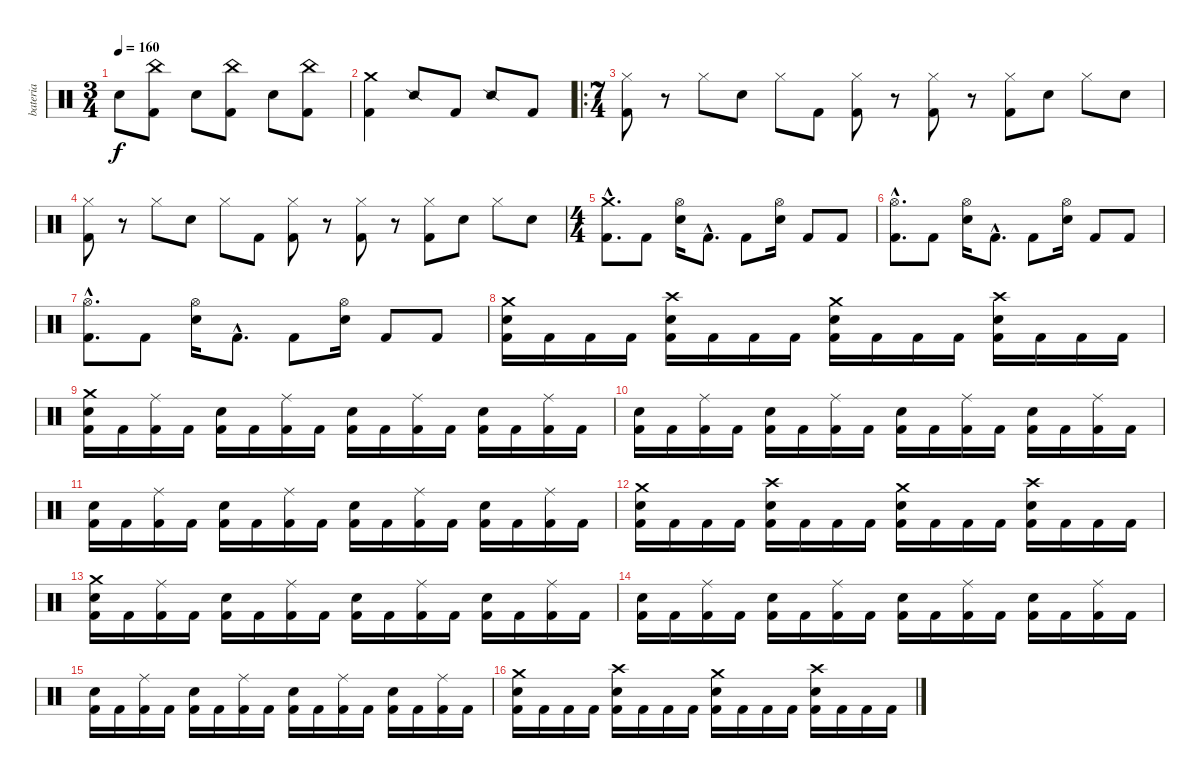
\track ("bateria" "bateria") {instrument percussion}
\staff {score}
\articulation defaults
\ts (3 4)
\tempo 160
\clef neutral
\ks c "Electric Snare (hit)".8{dy f}
("China (hit)" "Kick (hit) 2").8 "Electric Snare (hit)".8 ("China (hit)" "Kick (hit) 2").8 "Electric Snare (hit)".8 ("China (hit)" "Kick (hit) 2").8 |
("Crash medium (hit)" "Kick (hit) 2").4 "Snare (side stick) 2".8 "Kick (hit) 2".8 "Snare (side stick) 2".8 "Kick (hit) 2".8 |
\ro
\ts (7 4)
("Hi-Hat (closed)" "Kick (hit) 2").8 r.8 "Hi-Hat (closed)".8 "Electric Snare (hit)".8 "Hi-Hat (closed)".8 "Kick (hit) 2".8 ("Hi-Hat (closed)" "Kick (hit) 2").8 r.8 ("Hi-Hat (closed)" "Kick (hit) 2").8 r.8 ("Hi-Hat (closed)" "Kick (hit) 2").8 "Electric Snare (hit)".8 "Hi-Hat (closed)".8 "Electric Snare (hit)".8 |
("Hi-Hat (closed)" "Kick (hit) 2").8 r.8 "Hi-Hat (closed)".8 "Electric Snare (hit)".8 "Hi-Hat (closed)".8 "Kick (hit) 2".8 ("Hi-Hat (closed)" "Kick (hit) 2").8 r.8 ("Hi-Hat (closed)" "Kick (hit) 2").8 r.8 ("Hi-Hat (closed)" "Kick (hit) 2").8 "Electric Snare (hit)".8 "Hi-Hat (closed)".8 "Electric Snare (hit)".8 |
\ts (4 4)
("Crash medium (hit)"{hac} "Kick (hit) 2"{hac}).8{d} "Kick (hit) 2".8 ("Hi-Hat (open)" "Electric Snare (hit)").16 "Kick (hit) 2"{hac}.8{d} "Kick (hit) 2".8 ("Hi-Hat (open)" "Electric Snare (hit)").16 "Kick (hit) 2".8 "Kick (hit) 2".8 |
("Hi-Hat (open)"{hac} "Kick (hit) 2"{hac}).8{d} "Kick (hit) 2".8 ("Hi-Hat (open)" "Electric Snare (hit)").16 "Kick (hit) 2"{hac}.8{d} "Kick (hit) 2".8 ("Hi-Hat (open)" "Electric Snare (hit)").16 "Kick (hit) 2".8 "Kick (hit) 2".8 |
("Hi-Hat (open)"{hac} "Kick (hit) 2"{hac}).8{d} "Kick (hit) 2".8 ("Hi-Hat (open)" "Electric Snare (hit)").16 "Kick (hit) 2"{hac}.8{d} "Kick (hit) 2".8 ("Hi-Hat (open)" "Electric Snare (hit)").16 "Kick (hit) 2".8 "Kick (hit) 2".8 |
("Crash medium (hit)" "Electric Snare (hit)" "Kick (hit) 2").16 "Kick (hit) 2".16 "Kick (hit) 2".16 "Kick (hit) 2".16 ("Crash high (hit)" "Electric Snare (hit)" "Kick (hit) 2").16 "Kick (hit) 2".16 "Kick (hit) 2".16 "Kick (hit) 2".16 ("Crash medium (hit)" "Electric Snare (hit)" "Kick (hit) 2").16 "Kick (hit) 2".16 "Kick (hit) 2".16 "Kick (hit) 2".16 ("Crash high (hit)" "Electric Snare (hit)" "Kick (hit) 2").16 "Kick (hit) 2".16 "Kick (hit) 2".16 "Kick (hit) 2".16 |
("Crash medium (hit)" "Electric Snare (hit)" "Kick (hit) 2").16 "Kick (hit) 2".16 ("Ride (middle)" "Kick (hit) 2").16 "Kick (hit) 2".16 ("Electric Snare (hit)" "Kick (hit) 2").16 "Kick (hit) 2".16 ("Ride (middle)" "Kick (hit) 2").16 "Kick (hit) 2".16 ("Electric Snare (hit)" "Kick (hit) 2").16 "Kick (hit) 2".16 ("Ride (middle)" "Kick (hit) 2").16 "Kick (hit) 2".16 ("Electric Snare (hit)" "Kick (hit) 2").16 "Kick (hit) 2".16 ("Ride (middle)" "Kick (hit) 2").16 "Kick (hit) 2".16 |
("Electric Snare (hit)" "Kick (hit) 2").16 "Kick (hit) 2".16 ("Ride (middle)" "Kick (hit) 2").16 "Kick (hit) 2".16 ("Electric Snare (hit)" "Kick (hit) 2").16 "Kick (hit) 2".16 ("Ride (middle)" "Kick (hit) 2").16 "Kick (hit) 2".16 ("Electric Snare (hit)" "Kick (hit) 2").16 "Kick (hit) 2".16 ("Ride (middle)" "Kick (hit) 2").16 "Kick (hit) 2".16 ("Electric Snare (hit)" "Kick (hit) 2").16 "Kick (hit) 2".16 ("Ride (middle)" "Kick (hit) 2").16 "Kick (hit) 2".16 |
("Electric Snare (hit)" "Kick (hit) 2").16 "Kick (hit) 2".16 ("Ride (middle)" "Kick (hit) 2").16 "Kick (hit) 2".16 ("Electric Snare (hit)" "Kick (hit) 2").16 "Kick (hit) 2".16 ("Ride (middle)" "Kick (hit) 2").16 "Kick (hit) 2".16 ("Electric Snare (hit)" "Kick (hit) 2").16 "Kick (hit) 2".16 ("Ride (middle)" "Kick (hit) 2").16 "Kick (hit) 2".16 ("Electric Snare (hit)" "Kick (hit) 2").16 "Kick (hit) 2".16 ("Ride (middle)" "Kick (hit) 2").16 "Kick (hit) 2".16 |
("Crash medium (hit)" "Electric Snare (hit)" "Kick (hit) 2").16 "Kick (hit) 2".16 "Kick (hit) 2".16 "Kick (hit) 2".16 ("Crash high (hit)" "Electric Snare (hit)" "Kick (hit) 2").16 "Kick (hit) 2".16 "Kick (hit) 2".16 "Kick (hit) 2".16 ("Crash medium (hit)" "Electric Snare (hit)" "Kick (hit) 2").16 "Kick (hit) 2".16 "Kick (hit) 2".16 "Kick (hit) 2".16 ("Crash high (hit)" "Electric Snare (hit)" "Kick (hit) 2").16 "Kick (hit) 2".16 "Kick (hit) 2".16 "Kick (hit) 2".16 |
("Crash medium (hit)" "Electric Snare (hit)" "Kick (hit) 2").16 "Kick (hit) 2".16 ("Ride (middle)" "Kick (hit) 2").16 "Kick (hit) 2".16 ("Electric Snare (hit)" "Kick (hit) 2").16 "Kick (hit) 2".16 ("Ride (middle)" "Kick (hit) 2").16 "Kick (hit) 2".16 ("Electric Snare (hit)" "Kick (hit) 2").16 "Kick (hit) 2".16 ("Ride (middle)" "Kick (hit) 2").16 "Kick (hit) 2".16 ("Electric Snare (hit)" "Kick (hit) 2").16 "Kick (hit) 2".16 ("Ride (middle)" "Kick (hit) 2").16 "Kick (hit) 2".16 |
("Electric Snare (hit)" "Kick (hit) 2").16 "Kick (hit) 2".16 ("Ride (middle)" "Kick (hit) 2").16 "Kick (hit) 2".16 ("Electric Snare (hit)" "Kick (hit) 2").16 "Kick (hit) 2".16 ("Ride (middle)" "Kick (hit) 2").16 "Kick (hit) 2".16 ("Electric Snare (hit)" "Kick (hit) 2").16 "Kick (hit) 2".16 ("Ride (middle)" "Kick (hit) 2").16 "Kick (hit) 2".16 ("Electric Snare (hit)" "Kick (hit) 2").16 "Kick (hit) 2".16 ("Ride (middle)" "Kick (hit) 2").16 "Kick (hit) 2".16 |
("Electric Snare (hit)" "Kick (hit) 2").16 "Kick (hit) 2".16 ("Ride (middle)" "Kick (hit) 2").16 "Kick (hit) 2".16 ("Electric Snare (hit)" "Kick (hit) 2").16 "Kick (hit) 2".16 ("Ride (middle)" "Kick (hit) 2").16 "Kick (hit) 2".16 ("Electric Snare (hit)" "Kick (hit) 2").16 "Kick (hit) 2".16 ("Ride (middle)" "Kick (hit) 2").16 "Kick (hit) 2".16 ("Electric Snare (hit)" "Kick (hit) 2").16 "Kick (hit) 2".16 ("Ride (middle)" "Kick (hit) 2").16 "Kick (hit) 2".16 |
("Crash medium (hit)" "Electric Snare (hit)" "Kick (hit) 2").16 "Kick (hit) 2".16 "Kick (hit) 2".16 "Kick (hit) 2".16 ("Crash high (hit)" "Electric Snare (hit)" "Kick (hit) 2").16 "Kick (hit) 2".16 "Kick (hit) 2".16 "Kick (hit) 2".16 ("Crash medium (hit)" "Electric Snare (hit)" "Kick (hit) 2").16 "Kick (hit) 2".16 "Kick (hit) 2".16 "Kick (hit) 2".16 ("Crash high (hit)" "Electric Snare (hit)" "Kick (hit) 2").16 "Kick (hit) 2".16 "Kick (hit) 2".16 "Kick (hit) 2".16
